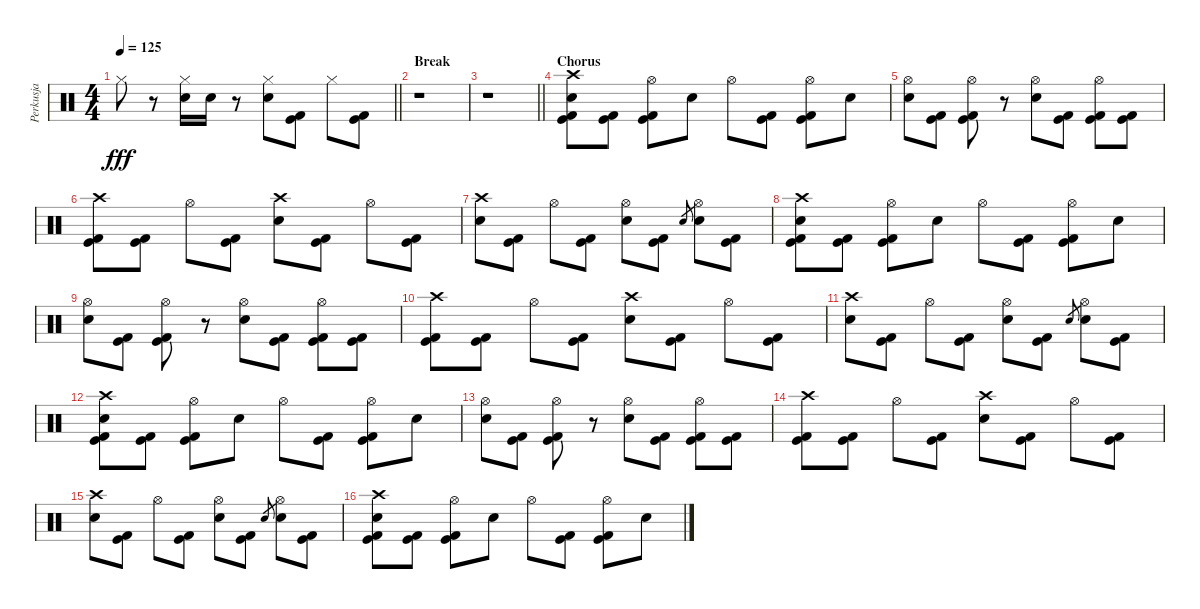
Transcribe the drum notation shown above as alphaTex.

\track ("Perkusja" "Perkusja") {instrument percussion}
\staff {score}
\articulation defaults
\ts (4 4)
\tempo 125
\clef neutral
\barLineRight lightlight
\ks c "Hi-Hat (closed)".8{dy fff}
r.8 ("Hi-Hat (closed)" "Electric Snare (hit)").16 "Electric Snare (hit)".16 r.8 ("Hi-Hat (closed)" "Electric Snare (hit)").8 ("Kick (hit)" "Kick (hit) 2").8 "Hi-Hat (closed)".8 ("Kick (hit)" "Kick (hit) 2").8 |
\section ("" "Break")
r.1 |
\barLineRight lightlight
r.1 |
\section ("" "Chorus")
("Crash high (hit)" "Electric Snare (hit)" "Kick (hit)" "Kick (hit) 2").8 ("Kick (hit)" "Kick (hit) 2").8 ("Hi-Hat (open)" "Kick (hit)" "Kick (hit) 2").8 "Electric Snare (hit)".8 "Hi-Hat (open)".8 ("Kick (hit)" "Kick (hit) 2").8 ("Hi-Hat (open)" "Kick (hit)" "Kick (hit) 2").8 "Electric Snare (hit)".8 |
("Hi-Hat (open)" "Electric Snare (hit)").8 ("Kick (hit)" "Kick (hit) 2").8 ("Hi-Hat (open)" "Kick (hit)" "Kick (hit) 2").8 r.8 ("Hi-Hat (open)" "Electric Snare (hit)").8 ("Kick (hit)" "Kick (hit) 2").8 ("Hi-Hat (open)" "Kick (hit)" "Kick (hit) 2").8 ("Kick (hit)" "Kick (hit) 2").8 |
("Crash high (hit)" "Kick (hit)" "Kick (hit) 2").8 ("Kick (hit)" "Kick (hit) 2").8 "Hi-Hat (open)".8 ("Kick (hit)" "Kick (hit) 2").8 ("Crash high (hit)" "Electric Snare (hit)").8 ("Kick (hit)" "Kick (hit) 2").8 "Hi-Hat (open)".8 ("Kick (hit)" "Kick (hit) 2").8 |
("Crash high (hit)" "Electric Snare (hit)").8 ("Kick (hit)" "Kick (hit) 2").8 "Hi-Hat (open)".8 ("Kick (hit)" "Kick (hit) 2").8 ("Hi-Hat (open)" "Electric Snare (hit)").8 ("Kick (hit)" "Kick (hit) 2").8 "Electric Snare (hit)".8{gr} ("Hi-Hat (open)" "Electric Snare (hit)").8 ("Kick (hit)" "Kick (hit) 2").8 |
("Crash high (hit)" "Electric Snare (hit)" "Kick (hit)" "Kick (hit) 2").8 ("Kick (hit)" "Kick (hit) 2").8 ("Hi-Hat (open)" "Kick (hit)" "Kick (hit) 2").8 "Electric Snare (hit)".8 "Hi-Hat (open)".8 ("Kick (hit)" "Kick (hit) 2").8 ("Hi-Hat (open)" "Kick (hit)" "Kick (hit) 2").8 "Electric Snare (hit)".8 |
("Hi-Hat (open)" "Electric Snare (hit)").8 ("Kick (hit)" "Kick (hit) 2").8 ("Hi-Hat (open)" "Kick (hit)" "Kick (hit) 2").8 r.8 ("Hi-Hat (open)" "Electric Snare (hit)").8 ("Kick (hit)" "Kick (hit) 2").8 ("Hi-Hat (open)" "Kick (hit)" "Kick (hit) 2").8 ("Kick (hit)" "Kick (hit) 2").8 |
("Crash high (hit)" "Kick (hit)" "Kick (hit) 2").8 ("Kick (hit)" "Kick (hit) 2").8 "Hi-Hat (open)".8 ("Kick (hit)" "Kick (hit) 2").8 ("Crash high (hit)" "Electric Snare (hit)").8 ("Kick (hit)" "Kick (hit) 2").8 "Hi-Hat (open)".8 ("Kick (hit)" "Kick (hit) 2").8 |
("Crash high (hit)" "Electric Snare (hit)").8 ("Kick (hit)" "Kick (hit) 2").8 "Hi-Hat (open)".8 ("Kick (hit)" "Kick (hit) 2").8 ("Hi-Hat (open)" "Electric Snare (hit)").8 ("Kick (hit)" "Kick (hit) 2").8 "Electric Snare (hit)".8{gr} ("Hi-Hat (open)" "Electric Snare (hit)").8 ("Kick (hit)" "Kick (hit) 2").8 |
("Crash high (hit)" "Electric Snare (hit)" "Kick (hit)" "Kick (hit) 2").8 ("Kick (hit)" "Kick (hit) 2").8 ("Hi-Hat (open)" "Kick (hit)" "Kick (hit) 2").8 "Electric Snare (hit)".8 "Hi-Hat (open)".8 ("Kick (hit)" "Kick (hit) 2").8 ("Hi-Hat (open)" "Kick (hit)" "Kick (hit) 2").8 "Electric Snare (hit)".8 |
("Hi-Hat (open)" "Electric Snare (hit)").8 ("Kick (hit)" "Kick (hit) 2").8 ("Hi-Hat (open)" "Kick (hit)" "Kick (hit) 2").8 r.8 ("Hi-Hat (open)" "Electric Snare (hit)").8 ("Kick (hit)" "Kick (hit) 2").8 ("Hi-Hat (open)" "Kick (hit)" "Kick (hit) 2").8 ("Kick (hit)" "Kick (hit) 2").8 |
("Crash high (hit)" "Kick (hit)" "Kick (hit) 2").8 ("Kick (hit)" "Kick (hit) 2").8 "Hi-Hat (open)".8 ("Kick (hit)" "Kick (hit) 2").8 ("Crash high (hit)" "Electric Snare (hit)").8 ("Kick (hit)" "Kick (hit) 2").8 "Hi-Hat (open)".8 ("Kick (hit)" "Kick (hit) 2").8 |
("Crash high (hit)" "Electric Snare (hit)").8 ("Kick (hit)" "Kick (hit) 2").8 "Hi-Hat (open)".8 ("Kick (hit)" "Kick (hit) 2").8 ("Hi-Hat (open)" "Electric Snare (hit)").8 ("Kick (hit)" "Kick (hit) 2").8 "Electric Snare (hit)".8{gr} ("Hi-Hat (open)" "Electric Snare (hit)").8 ("Kick (hit)" "Kick (hit) 2").8 |
("Crash high (hit)" "Electric Snare (hit)" "Kick (hit)" "Kick (hit) 2").8 ("Kick (hit)" "Kick (hit) 2").8 ("Hi-Hat (open)" "Kick (hit)" "Kick (hit) 2").8 "Electric Snare (hit)".8 "Hi-Hat (open)".8 ("Kick (hit)" "Kick (hit) 2").8 ("Hi-Hat (open)" "Kick (hit)" "Kick (hit) 2").8 "Electric Snare (hit)".8
